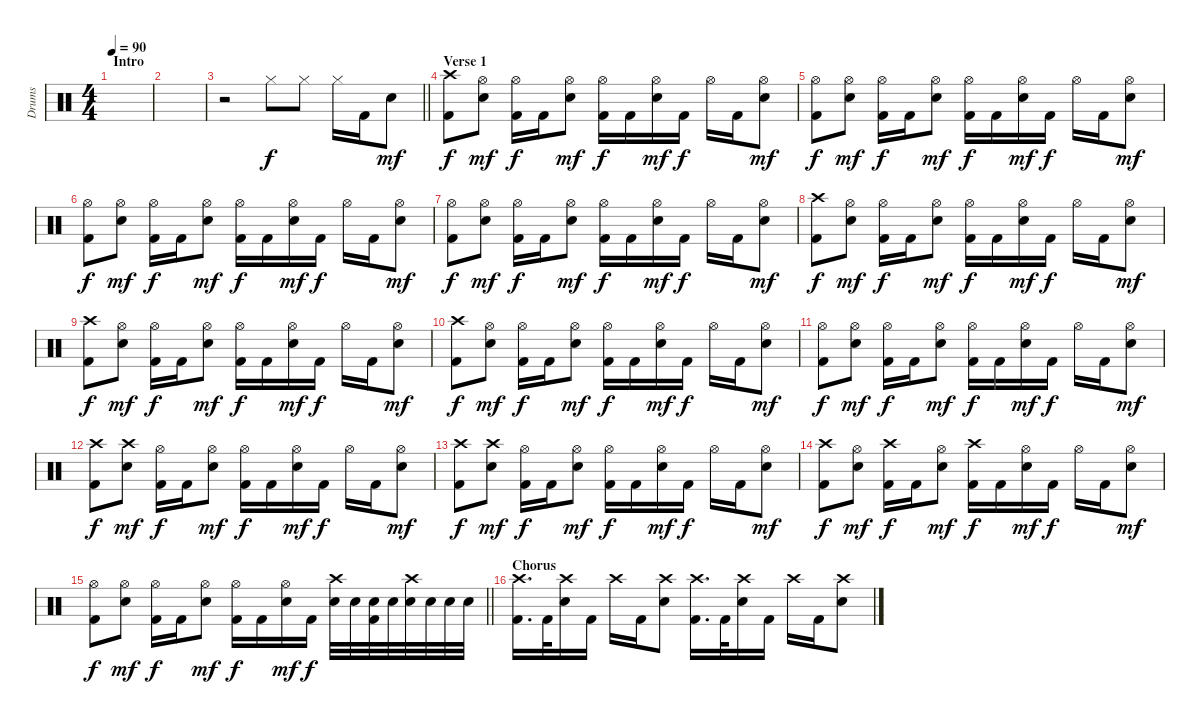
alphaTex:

\track ("Drums" "Drums") {instrument percussion}
\staff {score}
\articulation defaults
\ts (4 4)
\section ("" "Intro")
\tempo 90
\clef neutral
\ks c
|
|
\barLineRight lightlight
r.2 "Hi-Hat (closed)".8 "Hi-Hat (closed)".8 "Hi-Hat (closed)".16 "Kick (hit) 2".16 "Snare (hit) 2".8{dy mf} |
\section ("" "Verse 1")
("Crash high (hit)" "Kick (hit) 2").8{dy f} ("Hi-Hat (open)" "Snare (hit) 2").8{dy mf} ("Hi-Hat (open)" "Kick (hit) 2").16{dy f} "Kick (hit) 2".16 ("Hi-Hat (open)" "Snare (hit) 2").8{dy mf} ("Hi-Hat (open)" "Kick (hit) 2").16{dy f} "Kick (hit) 2".16 ("Hi-Hat (open)" "Snare (hit) 2").16{dy mf} "Kick (hit) 2".16{dy f} "Hi-Hat (open)".16 "Kick (hit) 2".16 ("Hi-Hat (open)" "Snare (hit) 2").8{dy mf} |
("Hi-Hat (open)" "Kick (hit) 2").8{dy f} ("Hi-Hat (open)" "Snare (hit) 2").8{dy mf} ("Hi-Hat (open)" "Kick (hit) 2").16{dy f} "Kick (hit) 2".16 ("Hi-Hat (open)" "Snare (hit) 2").8{dy mf} ("Hi-Hat (open)" "Kick (hit) 2").16{dy f} "Kick (hit) 2".16 ("Hi-Hat (open)" "Snare (hit) 2").16{dy mf} "Kick (hit) 2".16{dy f} "Hi-Hat (open)".16 "Kick (hit) 2".16 ("Hi-Hat (open)" "Snare (hit) 2").8{dy mf} |
("Hi-Hat (open)" "Kick (hit) 2").8{dy f} ("Hi-Hat (open)" "Snare (hit) 2").8{dy mf} ("Hi-Hat (open)" "Kick (hit) 2").16{dy f} "Kick (hit) 2".16 ("Hi-Hat (open)" "Snare (hit) 2").8{dy mf} ("Hi-Hat (open)" "Kick (hit) 2").16{dy f} "Kick (hit) 2".16 ("Hi-Hat (open)" "Snare (hit) 2").16{dy mf} "Kick (hit) 2".16{dy f} "Hi-Hat (open)".16 "Kick (hit) 2".16 ("Hi-Hat (open)" "Snare (hit) 2").8{dy mf} |
("Hi-Hat (open)" "Kick (hit) 2").8{dy f} ("Hi-Hat (open)" "Snare (hit) 2").8{dy mf} ("Hi-Hat (open)" "Kick (hit) 2").16{dy f} "Kick (hit) 2".16 ("Hi-Hat (open)" "Snare (hit) 2").8{dy mf} ("Hi-Hat (open)" "Kick (hit) 2").16{dy f} "Kick (hit) 2".16 ("Hi-Hat (open)" "Snare (hit) 2").16{dy mf} "Kick (hit) 2".16{dy f} "Hi-Hat (open)".16 "Kick (hit) 2".16 ("Hi-Hat (open)" "Snare (hit) 2").8{dy mf} |
("Crash high (hit)" "Kick (hit) 2").8{dy f} ("Hi-Hat (open)" "Snare (hit) 2").8{dy mf} ("Hi-Hat (open)" "Kick (hit) 2").16{dy f} "Kick (hit) 2".16 ("Hi-Hat (open)" "Snare (hit) 2").8{dy mf} ("Hi-Hat (open)" "Kick (hit) 2").16{dy f} "Kick (hit) 2".16 ("Hi-Hat (open)" "Snare (hit) 2").16{dy mf} "Kick (hit) 2".16{dy f} "Hi-Hat (open)".16 "Kick (hit) 2".16 ("Hi-Hat (open)" "Snare (hit) 2").8{dy mf} |
("Crash high (hit)" "Kick (hit) 2").8{dy f} ("Hi-Hat (open)" "Snare (hit) 2").8{dy mf} ("Hi-Hat (open)" "Kick (hit) 2").16{dy f} "Kick (hit) 2".16 ("Hi-Hat (open)" "Snare (hit) 2").8{dy mf} ("Hi-Hat (open)" "Kick (hit) 2").16{dy f} "Kick (hit) 2".16 ("Hi-Hat (open)" "Snare (hit) 2").16{dy mf} "Kick (hit) 2".16{dy f} "Hi-Hat (open)".16 "Kick (hit) 2".16 ("Hi-Hat (open)" "Snare (hit) 2").8{dy mf} |
("Crash high (hit)" "Kick (hit) 2").8{dy f} ("Hi-Hat (open)" "Snare (hit) 2").8{dy mf} ("Hi-Hat (open)" "Kick (hit) 2").16{dy f} "Kick (hit) 2".16 ("Hi-Hat (open)" "Snare (hit) 2").8{dy mf} ("Hi-Hat (open)" "Kick (hit) 2").16{dy f} "Kick (hit) 2".16 ("Hi-Hat (open)" "Snare (hit) 2").16{dy mf} "Kick (hit) 2".16{dy f} "Hi-Hat (open)".16 "Kick (hit) 2".16 ("Hi-Hat (open)" "Snare (hit) 2").8{dy mf} |
("Hi-Hat (open)" "Kick (hit) 2").8{dy f} ("Hi-Hat (open)" "Snare (hit) 2").8{dy mf} ("Hi-Hat (open)" "Kick (hit) 2").16{dy f} "Kick (hit) 2".16 ("Hi-Hat (open)" "Snare (hit) 2").8{dy mf} ("Hi-Hat (open)" "Kick (hit) 2").16{dy f} "Kick (hit) 2".16 ("Hi-Hat (open)" "Snare (hit) 2").16{dy mf} "Kick (hit) 2".16{dy f} "Hi-Hat (open)".16 "Kick (hit) 2".16 ("Hi-Hat (open)" "Snare (hit) 2").8{dy mf} |
("Crash high (hit)" "Kick (hit) 2").8{dy f} ("Crash high (hit)" "Snare (hit) 2").8{dy mf} ("Hi-Hat (open)" "Kick (hit) 2").16{dy f} "Kick (hit) 2".16 ("Hi-Hat (open)" "Snare (hit) 2").8{dy mf} ("Hi-Hat (open)" "Kick (hit) 2").16{dy f} "Kick (hit) 2".16 ("Hi-Hat (open)" "Snare (hit) 2").16{dy mf} "Kick (hit) 2".16{dy f} "Hi-Hat (open)".16 "Kick (hit) 2".16 ("Hi-Hat (open)" "Snare (hit) 2").8{dy mf} |
("Crash high (hit)" "Kick (hit) 2").8{dy f} ("Crash high (hit)" "Snare (hit) 2").8{dy mf} ("Hi-Hat (open)" "Kick (hit) 2").16{dy f} "Kick (hit) 2".16 ("Hi-Hat (open)" "Snare (hit) 2").8{dy mf} ("Hi-Hat (open)" "Kick (hit) 2").16{dy f} "Kick (hit) 2".16 ("Hi-Hat (open)" "Snare (hit) 2").16{dy mf} "Kick (hit) 2".16{dy f} "Hi-Hat (open)".16 "Kick (hit) 2".16 ("Hi-Hat (open)" "Snare (hit) 2").8{dy mf} |
("Crash high (hit)" "Kick (hit) 2").8{dy f} ("Hi-Hat (open)" "Snare (hit) 2").8{dy mf} ("Crash high (hit)" "Kick (hit) 2").16{dy f} "Kick (hit) 2".16 ("Hi-Hat (open)" "Snare (hit) 2").8{dy mf} ("Crash high (hit)" "Kick (hit) 2").16{dy f} "Kick (hit) 2".16 ("Hi-Hat (open)" "Snare (hit) 2").16{dy mf} "Kick (hit) 2".16{dy f} "Hi-Hat (open)".16 "Kick (hit) 2".16 ("Hi-Hat (open)" "Snare (hit) 2").8{dy mf} |
\barLineRight lightlight
("Hi-Hat (open)" "Kick (hit) 2").8{dy f} ("Hi-Hat (open)" "Snare (hit) 2").8{dy mf} ("Hi-Hat (open)" "Kick (hit) 2").16{dy f} "Kick (hit) 2".16 ("Hi-Hat (open)" "Snare (hit) 2").8{dy mf} ("Hi-Hat (open)" "Kick (hit) 2").16{dy f} "Kick (hit) 2".16 ("Hi-Hat (open)" "Snare (hit) 2").16{dy mf} "Kick (hit) 2".16{dy f} ("Crash high (hit)" "Snare (hit) 2").32 "Snare (hit) 2".32 ("Snare (hit) 2" "Kick (hit) 2").32 "Snare (hit) 2".32 ("Crash high (hit)" "Snare (hit) 2").32 "Snare (hit) 2".32 "Snare (hit) 2".32 "Snare (hit) 2".32 |
\section ("" "Chorus")
("Crash high (hit)" "Kick (hit) 2").16{d} "Kick (hit) 2".32 ("Crash high (hit)" "Snare (hit) 2").16 "Kick (hit) 2".16 "Crash high (hit)".16 "Kick (hit) 2".16 ("Crash high (hit)" "Snare (hit) 2").8 ("Crash high (hit)" "Kick (hit) 2").16{d} "Kick (hit) 2".32 ("Crash high (hit)" "Snare (hit) 2").16 "Kick (hit) 2".16 "Crash high (hit)".16 "Kick (hit) 2".16 ("Crash high (hit)" "Snare (hit) 2").8
